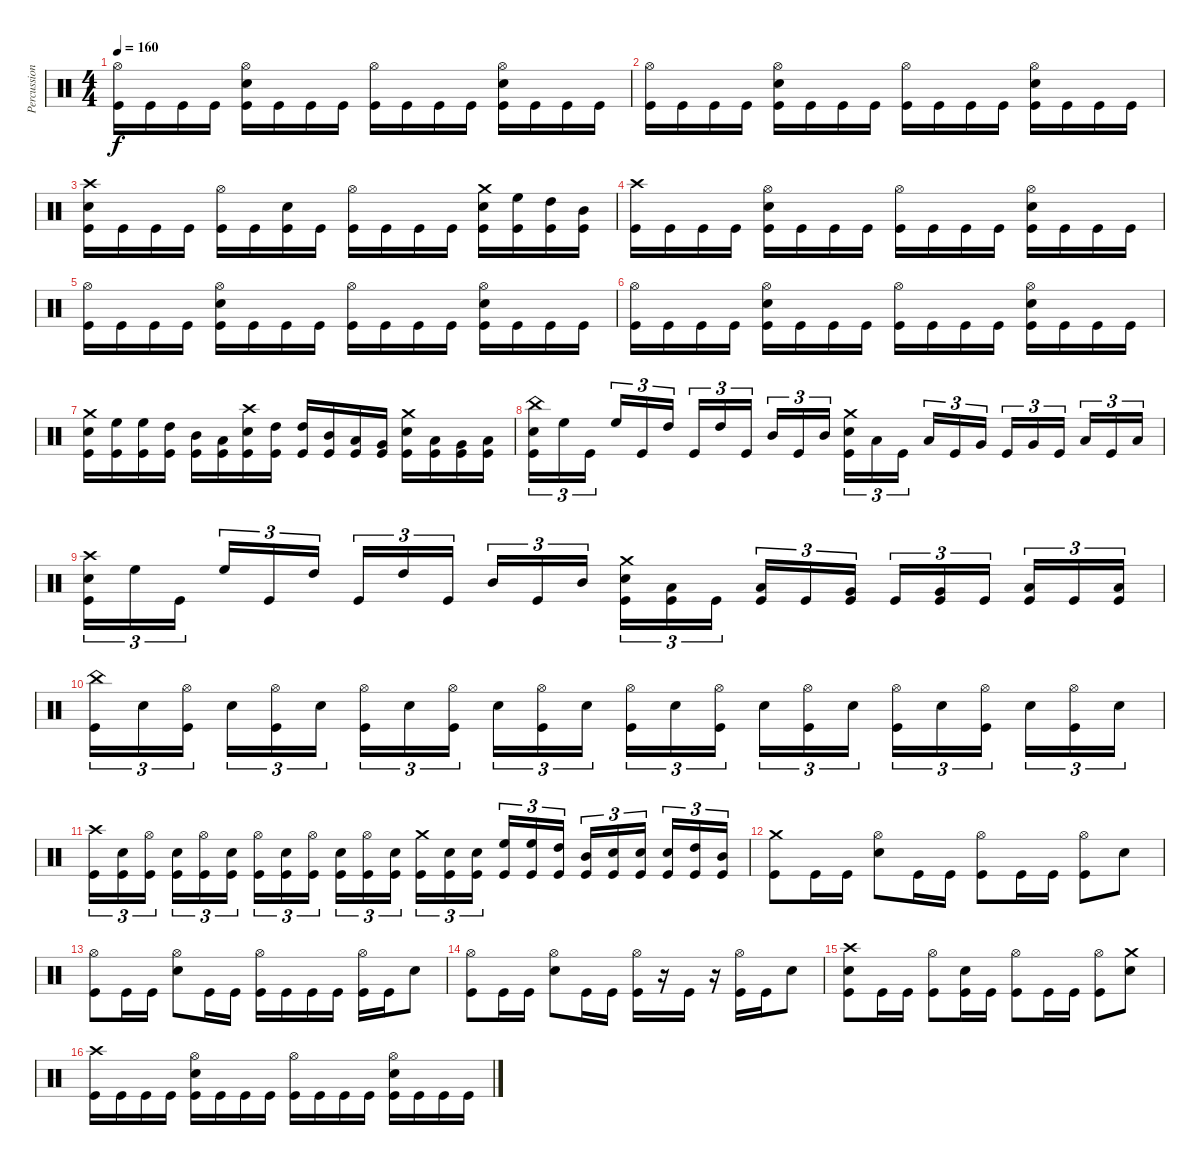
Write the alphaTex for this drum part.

\track ("Percussion" "Percussion") {instrument percussion}
\staff {score}
\articulation defaults
\ts (4 4)
\tempo 160
\clef neutral
\ks c
("Hi-Hat (open)" "Kick (hit)").16{dy f} "Kick (hit)".16 "Kick (hit)".16 "Kick (hit)".16 ("Hi-Hat (open)" "Snare (hit) 2" "Kick (hit)").16 "Kick (hit)".16 "Kick (hit)".16 "Kick (hit)".16 ("Hi-Hat (open)" "Kick (hit)").16 "Kick (hit)".16 "Kick (hit)".16 "Kick (hit)".16 ("Hi-Hat (open)" "Snare (hit) 2" "Kick (hit)").16 "Kick (hit)".16 "Kick (hit)".16 "Kick (hit)".16 |
("Hi-Hat (open)" "Kick (hit)").16 "Kick (hit)".16 "Kick (hit)".16 "Kick (hit)".16 ("Hi-Hat (open)" "Snare (hit) 2" "Kick (hit)").16 "Kick (hit)".16 "Kick (hit)".16 "Kick (hit)".16 ("Hi-Hat (open)" "Kick (hit)").16 "Kick (hit)".16 "Kick (hit)".16 "Kick (hit)".16 ("Hi-Hat (open)" "Snare (hit) 2" "Kick (hit)").16 "Kick (hit)".16 "Kick (hit)".16 "Kick (hit)".16 |
("Crash high (hit)" "Snare (hit) 2" "Kick (hit)").16 "Kick (hit)".16 "Kick (hit)".16 "Kick (hit)".16 ("Hi-Hat (open)" "Kick (hit)").16 "Kick (hit)".16 ("Snare (hit) 2" "Kick (hit)").16 "Kick (hit)".16 ("Hi-Hat (open)" "Kick (hit)").16 "Kick (hit)".16 "Kick (hit)".16 "Kick (hit)".16 ("Crash medium (hit)" "Snare (hit) 2" "Kick (hit)").16 ("High Floor Tom (hit)" "Kick (hit)").16 ("High Tom (hit)" "Kick (hit)").16 ("Mid Tom (hit)" "Kick (hit)").16 |
("Crash high (hit)" "Kick (hit)").16 "Kick (hit)".16 "Kick (hit)".16 "Kick (hit)".16 ("Hi-Hat (open)" "Snare (hit) 2" "Kick (hit)").16 "Kick (hit)".16 "Kick (hit)".16 "Kick (hit)".16 ("Hi-Hat (open)" "Kick (hit)").16 "Kick (hit)".16 "Kick (hit)".16 "Kick (hit)".16 ("Hi-Hat (open)" "Snare (hit) 2" "Kick (hit)").16 "Kick (hit)".16 "Kick (hit)".16 "Kick (hit)".16 |
("Hi-Hat (open)" "Kick (hit)").16 "Kick (hit)".16 "Kick (hit)".16 "Kick (hit)".16 ("Hi-Hat (open)" "Snare (hit) 2" "Kick (hit)").16 "Kick (hit)".16 "Kick (hit)".16 "Kick (hit)".16 ("Hi-Hat (open)" "Kick (hit)").16 "Kick (hit)".16 "Kick (hit)".16 "Kick (hit)".16 ("Hi-Hat (open)" "Snare (hit) 2" "Kick (hit)").16 "Kick (hit)".16 "Kick (hit)".16 "Kick (hit)".16 |
("Hi-Hat (open)" "Kick (hit)").16 "Kick (hit)".16 "Kick (hit)".16 "Kick (hit)".16 ("Hi-Hat (open)" "Snare (hit) 2" "Kick (hit)").16 "Kick (hit)".16 "Kick (hit)".16 "Kick (hit)".16 ("Hi-Hat (open)" "Kick (hit)").16 "Kick (hit)".16 "Kick (hit)".16 "Kick (hit)".16 ("Hi-Hat (open)" "Snare (hit) 2" "Kick (hit)").16 "Kick (hit)".16 "Kick (hit)".16 "Kick (hit)".16 |
("Crash medium (hit)" "Snare (hit) 2" "Kick (hit)").16 ("High Floor Tom (hit)" "Kick (hit)").16 ("High Floor Tom (hit)" "Kick (hit)").16 ("High Tom (hit)" "Kick (hit)").16 ("Mid Tom (hit)" "Kick (hit)").16 ("Low Tom (hit)" "Kick (hit)").16 ("Crash high (hit)" "Snare (hit) 2" "Kick (hit)").16 ("High Tom (hit)" "Kick (hit)").16 ("High Tom (hit)" "Kick (hit)").16 ("Mid Tom (hit)" "Kick (hit)").16 ("Low Tom (hit)" "Kick (hit)").16 ("Very Low Tom (hit)" "Kick (hit)").16 ("Crash medium (hit)" "Snare (hit) 2" "Kick (hit)").16 ("Low Tom (hit)" "Kick (hit)").16 ("Very Low Tom (hit)" "Kick (hit)").16 ("Low Floor Tom (hit)" "Kick (hit)").16 |
("China (hit)" "Snare (hit) 2" "Kick (hit)").16{tu (3 2)} "High Floor Tom (hit)".16{tu (3 2)} "Kick (hit)".16{tu (3 2) beam splitsecondary} "High Floor Tom (hit)".16{tu (3 2)} "Kick (hit)".16{tu (3 2)} "High Tom (hit)".16{tu (3 2)} "Kick (hit)".16{tu (3 2)} "High Tom (hit)".16{tu (3 2)} "Kick (hit)".16{tu (3 2) beam splitsecondary} "Mid Tom (hit)".16{tu (3 2)} "Kick (hit)".16{tu (3 2)} "Mid Tom (hit)".16{tu (3 2)} ("Crash medium (hit)" "Snare (hit) 2" "Kick (hit)").16{tu (3 2)} "Low Tom (hit)".16{tu (3 2)} "Kick (hit)".16{tu (3 2) beam splitsecondary} "Low Tom (hit)".16{tu (3 2)} "Kick (hit)".16{tu (3 2)} "Very Low Tom (hit)".16{tu (3 2)} "Kick (hit)".16{tu (3 2)} "Very Low Tom (hit)".16{tu (3 2)} "Kick (hit)".16{tu (3 2) beam splitsecondary} "Low Floor Tom (hit)".16{tu (3 2)} "Kick (hit)".16{tu (3 2)} "Low Floor Tom (hit)".16{tu (3 2)} |
("Crash high (hit)" "Snare (hit) 2" "Kick (hit)").16{tu (3 2)} "High Floor Tom (hit)".16{tu (3 2)} "Kick (hit)".16{tu (3 2) beam splitsecondary} "High Floor Tom (hit)".16{tu (3 2)} "Kick (hit)".16{tu (3 2)} "High Tom (hit)".16{tu (3 2)} "Kick (hit)".16{tu (3 2)} "High Tom (hit)".16{tu (3 2)} "Kick (hit)".16{tu (3 2) beam splitsecondary} "Mid Tom (hit)".16{tu (3 2)} "Kick (hit)".16{tu (3 2)} "Mid Tom (hit)".16{tu (3 2)} ("Crash medium (hit)" "Snare (hit) 2" "Kick (hit)").16{tu (3 2)} ("Low Tom (hit)" "Kick (hit)").16{tu (3 2)} "Kick (hit)".16{tu (3 2) beam splitsecondary} ("Low Tom (hit)" "Kick (hit)").16{tu (3 2)} "Kick (hit)".16{tu (3 2)} ("Very Low Tom (hit)" "Kick (hit)").16{tu (3 2)} "Kick (hit)".16{tu (3 2)} ("Very Low Tom (hit)" "Kick (hit)").16{tu (3 2)} "Kick (hit)".16{tu (3 2) beam splitsecondary} ("Low Floor Tom (hit)" "Kick (hit)").16{tu (3 2)} "Kick (hit)".16{tu (3 2)} ("Low Floor Tom (hit)" "Kick (hit)").16{tu (3 2)} |
("China (hit)" "Kick (hit)").16{tu (3 2)} "Snare (hit) 2".16{tu (3 2)} ("Hi-Hat (open)" "Kick (hit)").16{tu (3 2) beam splitsecondary} "Snare (hit) 2".16{tu (3 2)} ("Hi-Hat (open)" "Kick (hit)").16{tu (3 2)} "Snare (hit) 2".16{tu (3 2)} ("Hi-Hat (open)" "Kick (hit)").16{tu (3 2)} "Snare (hit) 2".16{tu (3 2)} ("Hi-Hat (open)" "Kick (hit)").16{tu (3 2) beam splitsecondary} "Snare (hit) 2".16{tu (3 2)} ("Hi-Hat (open)" "Kick (hit)").16{tu (3 2)} "Snare (hit) 2".16{tu (3 2)} ("Hi-Hat (open)" "Kick (hit)").16{tu (3 2)} "Snare (hit) 2".16{tu (3 2)} ("Hi-Hat (open)" "Kick (hit)").16{tu (3 2) beam splitsecondary} "Snare (hit) 2".16{tu (3 2)} ("Hi-Hat (open)" "Kick (hit)").16{tu (3 2)} "Snare (hit) 2".16{tu (3 2)} ("Hi-Hat (open)" "Kick (hit)").16{tu (3 2)} "Snare (hit) 2".16{tu (3 2)} ("Hi-Hat (open)" "Kick (hit)").16{tu (3 2) beam splitsecondary} "Snare (hit) 2".16{tu (3 2)} ("Hi-Hat (open)" "Kick (hit)").16{tu (3 2)} "Snare (hit) 2".16{tu (3 2)} |
("Crash high (hit)" "Kick (hit)").16{tu (3 2)} ("Snare (hit) 2" "Kick (hit)").16{tu (3 2)} ("Hi-Hat (open)" "Kick (hit)").16{tu (3 2) beam splitsecondary} ("Snare (hit) 2" "Kick (hit)").16{tu (3 2)} ("Hi-Hat (open)" "Kick (hit)").16{tu (3 2)} ("Snare (hit) 2" "Kick (hit)").16{tu (3 2)} ("Hi-Hat (open)" "Kick (hit)").16{tu (3 2)} ("Snare (hit) 2" "Kick (hit)").16{tu (3 2)} ("Hi-Hat (open)" "Kick (hit)").16{tu (3 2) beam splitsecondary} ("Snare (hit) 2" "Kick (hit)").16{tu (3 2)} ("Hi-Hat (open)" "Kick (hit)").16{tu (3 2)} ("Snare (hit) 2" "Kick (hit)").16{tu (3 2)} ("Crash medium (hit)" "Kick (hit)").16{tu (3 2)} ("Snare (hit) 2" "Kick (hit)").16{tu (3 2)} ("Snare (hit) 2" "Kick (hit)").16{tu (3 2) beam splitsecondary} ("High Floor Tom (hit)" "Kick (hit)").16{tu (3 2)} ("High Floor Tom (hit)" "Kick (hit)").16{tu (3 2)} ("High Tom (hit)" "Kick (hit)").16{tu (3 2)} ("Mid Tom (hit)" "Kick (hit)").16{tu (3 2)} ("Snare (hit) 2" "Kick (hit)").16{tu (3 2)} ("Snare (hit) 2" "Kick (hit)").16{tu (3 2) beam splitsecondary} ("Snare (hit) 2" "Kick (hit)").16{tu (3 2)} ("High Tom (hit)" "Kick (hit)").16{tu (3 2)} ("Mid Tom (hit)" "Kick (hit)").16{tu (3 2)} |
("Crash medium (hit)" "Kick (hit)").8 "Kick (hit)".16 "Kick (hit)".16 ("Hi-Hat (open)" "Snare (hit) 2").8 "Kick (hit)".16 "Kick (hit)".16 ("Hi-Hat (open)" "Kick (hit)").8 "Kick (hit)".16 "Kick (hit)".16 ("Hi-Hat (open)" "Kick (hit)").8 "Snare (hit) 2".8 |
("Hi-Hat (open)" "Kick (hit)").8 "Kick (hit)".16 "Kick (hit)".16 ("Hi-Hat (open)" "Snare (hit) 2").8 "Kick (hit)".16 "Kick (hit)".16 ("Hi-Hat (open)" "Kick (hit)").16 "Kick (hit)".16 "Kick (hit)".16 "Kick (hit)".16 ("Hi-Hat (open)" "Kick (hit)").16 "Kick (hit)".16 "Snare (hit) 2".8 |
("Hi-Hat (open)" "Kick (hit)").8 "Kick (hit)".16 "Kick (hit)".16 ("Hi-Hat (open)" "Snare (hit) 2").8 "Kick (hit)".16 "Kick (hit)".16 ("Hi-Hat (open)" "Kick (hit)").16 r.16 "Kick (hit)".16 r.16 ("Hi-Hat (open)" "Kick (hit)").16 "Kick (hit)".16 "Snare (hit) 2".8 |
("Crash high (hit)" "Snare (hit) 2" "Kick (hit)").8 "Kick (hit)".16 "Kick (hit)".16 ("Hi-Hat (open)" "Kick (hit)").8 ("Snare (hit) 2" "Kick (hit)").16 "Kick (hit)".16 ("Hi-Hat (open)" "Kick (hit)").8 "Kick (hit)".16 "Kick (hit)".16 ("Hi-Hat (open)" "Kick (hit)").8 ("Crash medium (hit)" "Snare (hit) 2").8 |
("Crash high (hit)" "Kick (hit)").16 "Kick (hit)".16 "Kick (hit)".16 "Kick (hit)".16 ("Hi-Hat (open)" "Snare (hit) 2" "Kick (hit)").16 "Kick (hit)".16 "Kick (hit)".16 "Kick (hit)".16 ("Hi-Hat (open)" "Kick (hit)").16 "Kick (hit)".16 "Kick (hit)".16 "Kick (hit)".16 ("Hi-Hat (open)" "Snare (hit) 2" "Kick (hit)").16 "Kick (hit)".16 "Kick (hit)".16 "Kick (hit)".16
